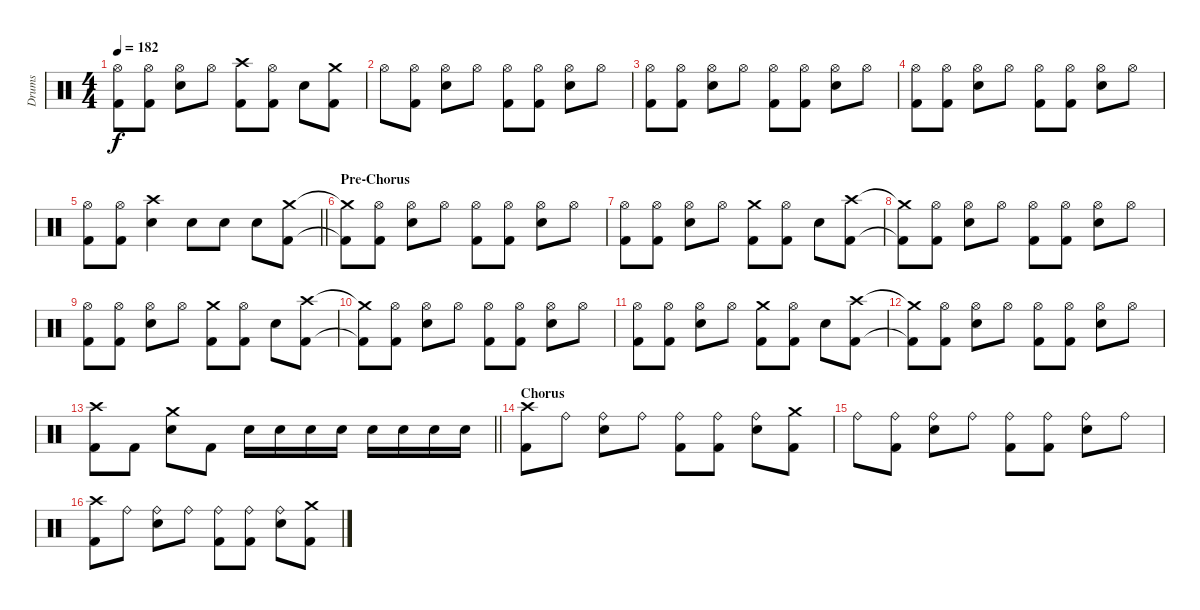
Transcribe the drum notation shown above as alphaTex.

\track ("Drums" "Drums") {instrument percussion}
\staff {score}
\articulation defaults
\ts (4 4)
\tempo 182
\clef neutral
\ks c
("Hi-Hat (open)" "Kick (hit) 2").8{dy f} ("Hi-Hat (open)" "Kick (hit) 2").8 ("Hi-Hat (open)" "Snare (hit) 2").8 "Hi-Hat (open)".8 ("Crash high (hit)" "Kick (hit) 2").8 ("Hi-Hat (open)" "Kick (hit) 2").8 "Snare (hit) 2".8 ("Crash medium (hit)" "Kick (hit) 2").8 |
"Hi-Hat (open)".8 ("Hi-Hat (open)" "Kick (hit) 2").8 ("Hi-Hat (open)" "Snare (hit) 2").8 "Hi-Hat (open)".8 ("Hi-Hat (open)" "Kick (hit) 2").8 ("Hi-Hat (open)" "Kick (hit) 2").8 ("Hi-Hat (open)" "Snare (hit) 2").8 "Hi-Hat (open)".8 |
("Hi-Hat (open)" "Kick (hit) 2").8 ("Hi-Hat (open)" "Kick (hit) 2").8 ("Hi-Hat (open)" "Snare (hit) 2").8 "Hi-Hat (open)".8 ("Hi-Hat (open)" "Kick (hit) 2").8 ("Hi-Hat (open)" "Kick (hit) 2").8 ("Hi-Hat (open)" "Snare (hit) 2").8 "Hi-Hat (open)".8 |
("Hi-Hat (open)" "Kick (hit) 2").8 ("Hi-Hat (open)" "Kick (hit) 2").8 ("Hi-Hat (open)" "Snare (hit) 2").8 "Hi-Hat (open)".8 ("Hi-Hat (open)" "Kick (hit) 2").8 ("Hi-Hat (open)" "Kick (hit) 2").8 ("Hi-Hat (open)" "Snare (hit) 2").8 "Hi-Hat (open)".8 |
\barLineRight lightlight
("Hi-Hat (open)" "Kick (hit) 2").8 ("Hi-Hat (open)" "Kick (hit) 2").8 ("Crash high (hit)" "Snare (hit) 2").4 "Snare (hit) 2".8 "Snare (hit) 2".8 "Snare (hit) 2".8 ("Crash medium (hit)" "Kick (hit) 2").8 |
\section ("" "Pre-Chorus")
("Crash medium (hit)"{t} "Kick (hit) 2"{t}).8 ("Hi-Hat (open)" "Kick (hit) 2").8 ("Hi-Hat (open)" "Snare (hit) 2").8 "Hi-Hat (open)".8 ("Hi-Hat (open)" "Kick (hit) 2").8 ("Hi-Hat (open)" "Kick (hit) 2").8 ("Hi-Hat (open)" "Snare (hit) 2").8 "Hi-Hat (open)".8 |
("Hi-Hat (open)" "Kick (hit) 2").8 ("Hi-Hat (open)" "Kick (hit) 2").8 ("Hi-Hat (open)" "Snare (hit) 2").8 "Hi-Hat (open)".8 ("Crash medium (hit)" "Kick (hit) 2").8 ("Hi-Hat (open)" "Kick (hit) 2").8 "Snare (hit) 2".8 ("Crash high (hit)" "Kick (hit) 2").8 |
("Crash medium (hit)"{t} "Kick (hit) 2"{t}).8 ("Hi-Hat (open)" "Kick (hit) 2").8 ("Hi-Hat (open)" "Snare (hit) 2").8 "Hi-Hat (open)".8 ("Hi-Hat (open)" "Kick (hit) 2").8 ("Hi-Hat (open)" "Kick (hit) 2").8 ("Hi-Hat (open)" "Snare (hit) 2").8 "Hi-Hat (open)".8 |
("Hi-Hat (open)" "Kick (hit) 2").8 ("Hi-Hat (open)" "Kick (hit) 2").8 ("Hi-Hat (open)" "Snare (hit) 2").8 "Hi-Hat (open)".8 ("Crash medium (hit)" "Kick (hit) 2").8 ("Hi-Hat (open)" "Kick (hit) 2").8 "Snare (hit) 2".8 ("Crash high (hit)" "Kick (hit) 2").8 |
("Crash medium (hit)"{t} "Kick (hit) 2"{t}).8 ("Hi-Hat (open)" "Kick (hit) 2").8 ("Hi-Hat (open)" "Snare (hit) 2").8 "Hi-Hat (open)".8 ("Hi-Hat (open)" "Kick (hit) 2").8 ("Hi-Hat (open)" "Kick (hit) 2").8 ("Hi-Hat (open)" "Snare (hit) 2").8 "Hi-Hat (open)".8 |
("Hi-Hat (open)" "Kick (hit) 2").8 ("Hi-Hat (open)" "Kick (hit) 2").8 ("Hi-Hat (open)" "Snare (hit) 2").8 "Hi-Hat (open)".8 ("Crash medium (hit)" "Kick (hit) 2").8 ("Hi-Hat (open)" "Kick (hit) 2").8 "Snare (hit) 2".8 ("Crash high (hit)" "Kick (hit) 2").8 |
("Crash medium (hit)"{t} "Kick (hit) 2"{t}).8 ("Hi-Hat (open)" "Kick (hit) 2").8 ("Hi-Hat (open)" "Snare (hit) 2").8 "Hi-Hat (open)".8 ("Hi-Hat (open)" "Kick (hit) 2").8 ("Hi-Hat (open)" "Kick (hit) 2").8 ("Hi-Hat (open)" "Snare (hit) 2").8 "Hi-Hat (open)".8 |
\barLineRight lightlight
("Crash high (hit)" "Kick (hit) 2").8 "Kick (hit) 2".8 ("Crash medium (hit)" "Snare (hit) 2").8 "Kick (hit) 2".8 "Snare (hit) 2".16 "Snare (hit) 2".16 "Snare (hit) 2".16 "Snare (hit) 2".16 "Snare (hit) 2".16 "Snare (hit) 2".16 "Snare (hit) 2".16 "Snare (hit) 2".16 |
\section ("" "Chorus")
("Crash high (hit)" "Kick (hit) 2").8 "Ride (bell)".8 ("Ride (bell)" "Snare (hit) 2").8 "Ride (bell)".8 ("Ride (bell)" "Kick (hit) 2").8 ("Ride (bell)" "Kick (hit) 2").8 ("Ride (bell)" "Snare (hit) 2").8 ("Crash medium (hit)" "Kick (hit) 2").8 |
"Ride (bell)".8 ("Ride (bell)" "Kick (hit) 2").8 ("Ride (bell)" "Snare (hit) 2").8 "Ride (bell)".8 ("Ride (bell)" "Kick (hit) 2").8 ("Ride (bell)" "Kick (hit) 2").8 ("Ride (bell)" "Snare (hit) 2").8 "Ride (bell)".8 |
("Crash high (hit)" "Kick (hit) 2").8 "Ride (bell)".8 ("Ride (bell)" "Snare (hit) 2").8 "Ride (bell)".8 ("Ride (bell)" "Kick (hit) 2").8 ("Ride (bell)" "Kick (hit) 2").8 ("Ride (bell)" "Snare (hit) 2").8 ("Crash medium (hit)" "Kick (hit) 2").8
